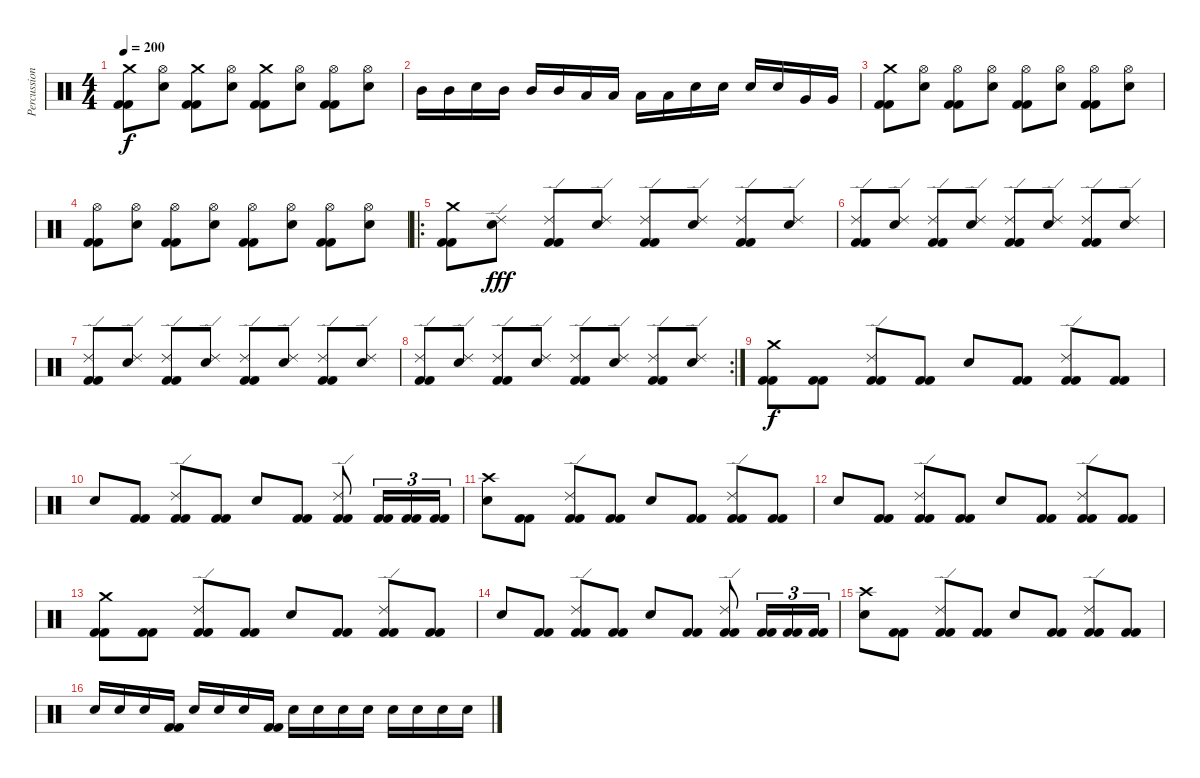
\track ("Percussion" "Percussion") {instrument percussion}
\staff {score}
\articulation defaults
\ts (4 4)
\tempo 200
\clef neutral
\ks c
("Crash medium (hit)" "Kick (hit) 2" "Kick (hit) 2").8{dy f} ("Electric Snare (hit)" "Hi-Hat (open)").8 ("Crash medium (hit)" "Kick (hit) 2" "Kick (hit) 2").8 ("Electric Snare (hit)" "Hi-Hat (open)").8 ("Crash medium (hit)" "Kick (hit) 2" "Kick (hit) 2").8 ("Electric Snare (hit)" "Hi-Hat (open)").8 ("Hi-Hat (open)" "Kick (hit) 2" "Kick (hit) 2").8 ("Electric Snare (hit)" "Hi-Hat (open)").8 |
"Mid Tom (hit)".16 "Mid Tom (hit)".16 "Electric Snare (hit)".16 "Mid Tom (hit)".16 "Mid Tom (hit)".16 "Mid Tom (hit)".16 "Low Tom (hit)".16 "Low Tom (hit)".16 "Low Tom (hit)".16 "Low Tom (hit)".16 "Electric Snare (hit)".16 "Electric Snare (hit)".16 "Electric Snare (hit)".16 "Electric Snare (hit)".16 "Very Low Tom (hit)".16 "Very Low Tom (hit)".16 |
("Crash medium (hit)" "Kick (hit) 2" "Kick (hit) 2").8 ("Electric Snare (hit)" "Hi-Hat (open)").8 ("Hi-Hat (open)" "Kick (hit) 2" "Kick (hit) 2").8 ("Electric Snare (hit)" "Hi-Hat (open)").8 ("Hi-Hat (open)" "Kick (hit) 2" "Kick (hit) 2").8 ("Electric Snare (hit)" "Hi-Hat (open)").8 ("Hi-Hat (open)" "Kick (hit) 2" "Kick (hit) 2").8 ("Electric Snare (hit)" "Hi-Hat (open)").8 |
("Hi-Hat (open)" "Kick (hit) 2" "Kick (hit) 2").8 ("Hi-Hat (open)" "Electric Snare (hit)").8 ("Hi-Hat (open)" "Kick (hit) 2" "Kick (hit) 2").8 ("Hi-Hat (open)" "Electric Snare (hit)").8 ("Hi-Hat (open)" "Kick (hit) 2" "Kick (hit) 2").8 ("Hi-Hat (open)" "Electric Snare (hit)").8 ("Hi-Hat (open)" "Kick (hit) 2" "Kick (hit) 2").8 ("Hi-Hat (open)" "Electric Snare (hit)").8 |
\ro
("Crash medium (hit)" "Kick (hit) 2" "Kick (hit) 2").8 ("Electric Snare (hit)" "Ride (edge) 2").8{dy fff} ("Kick (hit) 2" "Kick (hit) 2" "Ride (edge) 2").8 ("Electric Snare (hit)" "Ride (edge) 2").8 ("Kick (hit) 2" "Kick (hit) 2" "Ride (edge) 2").8 ("Electric Snare (hit)" "Ride (edge) 2").8 ("Kick (hit) 2" "Kick (hit) 2" "Ride (edge) 2").8 ("Electric Snare (hit)" "Ride (edge) 2").8 |
("Kick (hit) 2" "Kick (hit) 2" "Ride (edge) 2").8 ("Electric Snare (hit)" "Ride (edge) 2").8 ("Kick (hit) 2" "Kick (hit) 2" "Ride (edge) 2").8 ("Electric Snare (hit)" "Ride (edge) 2").8 ("Kick (hit) 2" "Kick (hit) 2" "Ride (edge) 2").8 ("Electric Snare (hit)" "Ride (edge) 2").8 ("Kick (hit) 2" "Kick (hit) 2" "Ride (edge) 2").8 ("Electric Snare (hit)" "Ride (edge) 2").8 |
("Kick (hit) 2" "Kick (hit) 2" "Ride (edge) 2").8 ("Electric Snare (hit)" "Ride (edge) 2").8 ("Kick (hit) 2" "Kick (hit) 2" "Ride (edge) 2").8 ("Electric Snare (hit)" "Ride (edge) 2").8 ("Kick (hit) 2" "Kick (hit) 2" "Ride (edge) 2").8 ("Electric Snare (hit)" "Ride (edge) 2").8 ("Kick (hit) 2" "Kick (hit) 2" "Ride (edge) 2").8 ("Electric Snare (hit)" "Ride (edge) 2").8 |
\rc 2
("Kick (hit) 2" "Kick (hit) 2" "Ride (edge) 2").8 ("Electric Snare (hit)" "Ride (edge) 2").8 ("Kick (hit) 2" "Kick (hit) 2" "Ride (edge) 2").8 ("Electric Snare (hit)" "Ride (edge) 2").8 ("Kick (hit) 2" "Kick (hit) 2" "Ride (edge) 2").8 ("Electric Snare (hit)" "Ride (edge) 2").8 ("Kick (hit) 2" "Kick (hit) 2" "Ride (edge) 2").8 ("Electric Snare (hit)" "Ride (edge) 2").8 |
("Crash medium (hit)" "Kick (hit) 2" "Kick (hit) 2").8{dy f} ("Kick (hit) 2" "Kick (hit) 2").8 ("Kick (hit) 2" "Kick (hit) 2" "Ride (edge) 2").8 ("Kick (hit) 2" "Kick (hit) 2").8 "Electric Snare (hit)".8 ("Kick (hit) 2" "Kick (hit) 2").8 ("Kick (hit) 2" "Kick (hit) 2" "Ride (edge) 2").8 ("Kick (hit) 2" "Kick (hit) 2").8 |
"Electric Snare (hit)".8 ("Kick (hit) 2" "Kick (hit) 2").8 ("Kick (hit) 2" "Kick (hit) 2" "Ride (edge) 2").8 ("Kick (hit) 2" "Kick (hit) 2").8 "Electric Snare (hit)".8 ("Kick (hit) 2" "Kick (hit) 2").8 ("Kick (hit) 2" "Kick (hit) 2" "Ride (edge) 2").8 ("Kick (hit) 2" "Kick (hit) 2").16{tu (3 2)} ("Kick (hit) 2" "Kick (hit) 2").16{tu (3 2)} ("Kick (hit) 2" "Kick (hit) 2").16{tu (3 2)} |
("Electric Snare (hit)" "Crash high (hit)").8 ("Kick (hit) 2" "Kick (hit) 2").8 ("Kick (hit) 2" "Kick (hit) 2" "Ride (edge) 2").8 ("Kick (hit) 2" "Kick (hit) 2").8 "Electric Snare (hit)".8 ("Kick (hit) 2" "Kick (hit) 2").8 ("Kick (hit) 2" "Kick (hit) 2" "Ride (edge) 2").8 ("Kick (hit) 2" "Kick (hit) 2").8 |
"Electric Snare (hit)".8 ("Kick (hit) 2" "Kick (hit) 2").8 ("Kick (hit) 2" "Kick (hit) 2" "Ride (edge) 2").8 ("Kick (hit) 2" "Kick (hit) 2").8 "Electric Snare (hit)".8 ("Kick (hit) 2" "Kick (hit) 2").8 ("Kick (hit) 2" "Kick (hit) 2" "Ride (edge) 2").8 ("Kick (hit) 2" "Kick (hit) 2").8 |
("Crash medium (hit)" "Kick (hit) 2" "Kick (hit) 2").8 ("Kick (hit) 2" "Kick (hit) 2").8 ("Kick (hit) 2" "Kick (hit) 2" "Ride (edge) 2").8 ("Kick (hit) 2" "Kick (hit) 2").8 "Electric Snare (hit)".8 ("Kick (hit) 2" "Kick (hit) 2").8 ("Kick (hit) 2" "Kick (hit) 2" "Ride (edge) 2").8 ("Kick (hit) 2" "Kick (hit) 2").8 |
"Electric Snare (hit)".8 ("Kick (hit) 2" "Kick (hit) 2").8 ("Kick (hit) 2" "Kick (hit) 2" "Ride (edge) 2").8 ("Kick (hit) 2" "Kick (hit) 2").8 "Electric Snare (hit)".8 ("Kick (hit) 2" "Kick (hit) 2").8 ("Kick (hit) 2" "Kick (hit) 2" "Ride (edge) 2").8 ("Kick (hit) 2" "Kick (hit) 2").16{tu (3 2)} ("Kick (hit) 2" "Kick (hit) 2").16{tu (3 2)} ("Kick (hit) 2" "Kick (hit) 2").16{tu (3 2)} |
("Electric Snare (hit)" "Crash high (hit)").8 ("Kick (hit) 2" "Kick (hit) 2").8 ("Kick (hit) 2" "Kick (hit) 2" "Ride (edge) 2").8 ("Kick (hit) 2" "Kick (hit) 2").8 "Electric Snare (hit)".8 ("Kick (hit) 2" "Kick (hit) 2").8 ("Kick (hit) 2" "Kick (hit) 2" "Ride (edge) 2").8 ("Kick (hit) 2" "Kick (hit) 2").8 |
"Electric Snare (hit)".16 "Electric Snare (hit)".16 "Electric Snare (hit)".16 ("Kick (hit) 2" "Kick (hit) 2").16 "Electric Snare (hit)".16 "Electric Snare (hit)".16 "Electric Snare (hit)".16 ("Kick (hit) 2" "Kick (hit) 2").16 "Electric Snare (hit)".16 "Electric Snare (hit)".16 "Electric Snare (hit)".16 "Electric Snare (hit)".16 "Electric Snare (hit)".16 "Electric Snare (hit)".16 "Electric Snare (hit)".16 "Electric Snare (hit)".16
